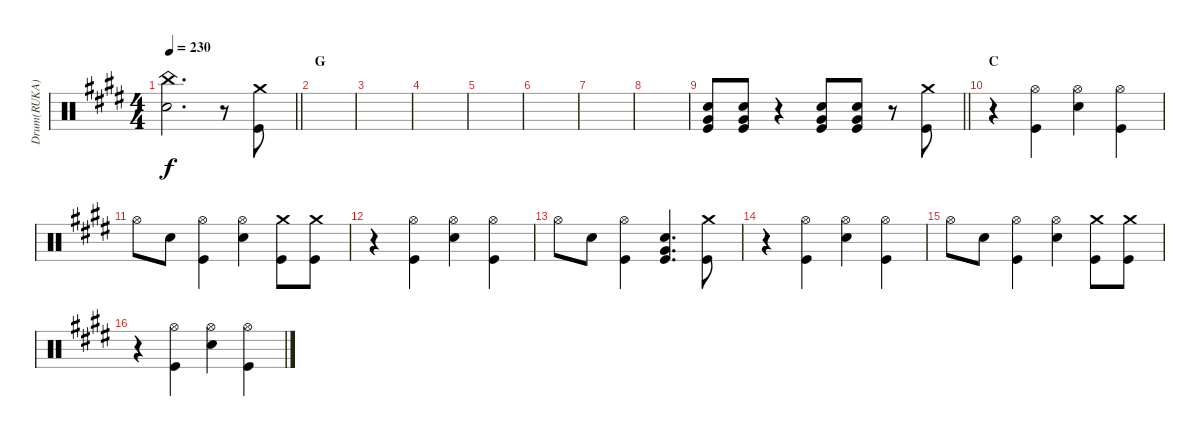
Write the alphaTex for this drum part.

\track ("Drum(RUKA)" "Drum(RUKA)") {instrument percussion}
\staff {score}
\articulation defaults
\ts (4 4)
\tempo 230
\clef neutral
\barLineRight lightlight
\ks e
("China (hit)" "Electric Snare (hit)").2{d dy f} r.8 ("Crash medium (hit)" "Kick (hit)").8 |
\section ("" "G")
|
|
|
|
|
|
|
\barLineRight lightlight
("Electric Snare (hit)" "Very Low Tom (hit)" "Kick (hit)").8 ("Electric Snare (hit)" "Very Low Tom (hit)" "Kick (hit)").8 r.4 ("Electric Snare (hit)" "Very Low Tom (hit)" "Kick (hit)").8 ("Electric Snare (hit)" "Very Low Tom (hit)" "Kick (hit)").8 r.8 ("Crash medium (hit)" "Kick (hit)").8 |
\section ("" "C")
r.4 ("Hi-Hat (open)" "Kick (hit)").4 ("Hi-Hat (open)" "Electric Snare (hit)").4 ("Hi-Hat (open)" "Kick (hit)").4 |
"Hi-Hat (open)".8 "Electric Snare (hit)".8 ("Hi-Hat (open)" "Kick (hit)").4 ("Hi-Hat (open)" "Electric Snare (hit)").4 ("Crash medium (hit)" "Kick (hit)").8 ("Crash medium (hit)" "Kick (hit)").8 |
r.4 ("Hi-Hat (open)" "Kick (hit)").4 ("Hi-Hat (open)" "Electric Snare (hit)").4 ("Hi-Hat (open)" "Kick (hit)").4 |
"Hi-Hat (open)".8 "Electric Snare (hit)".8 ("Hi-Hat (open)" "Kick (hit)").4 ("Electric Snare (hit)" "Very Low Tom (hit)" "Kick (hit)").4{d} ("Crash medium (hit)" "Kick (hit)").8 |
r.4 ("Hi-Hat (open)" "Kick (hit)").4 ("Hi-Hat (open)" "Electric Snare (hit)").4 ("Hi-Hat (open)" "Kick (hit)").4 |
"Hi-Hat (open)".8 "Electric Snare (hit)".8 ("Hi-Hat (open)" "Kick (hit)").4 ("Hi-Hat (open)" "Electric Snare (hit)").4 ("Crash medium (hit)" "Kick (hit)").8 ("Crash medium (hit)" "Kick (hit)").8 |
r.4 ("Hi-Hat (open)" "Kick (hit)").4 ("Hi-Hat (open)" "Electric Snare (hit)").4 ("Hi-Hat (open)" "Kick (hit)").4
